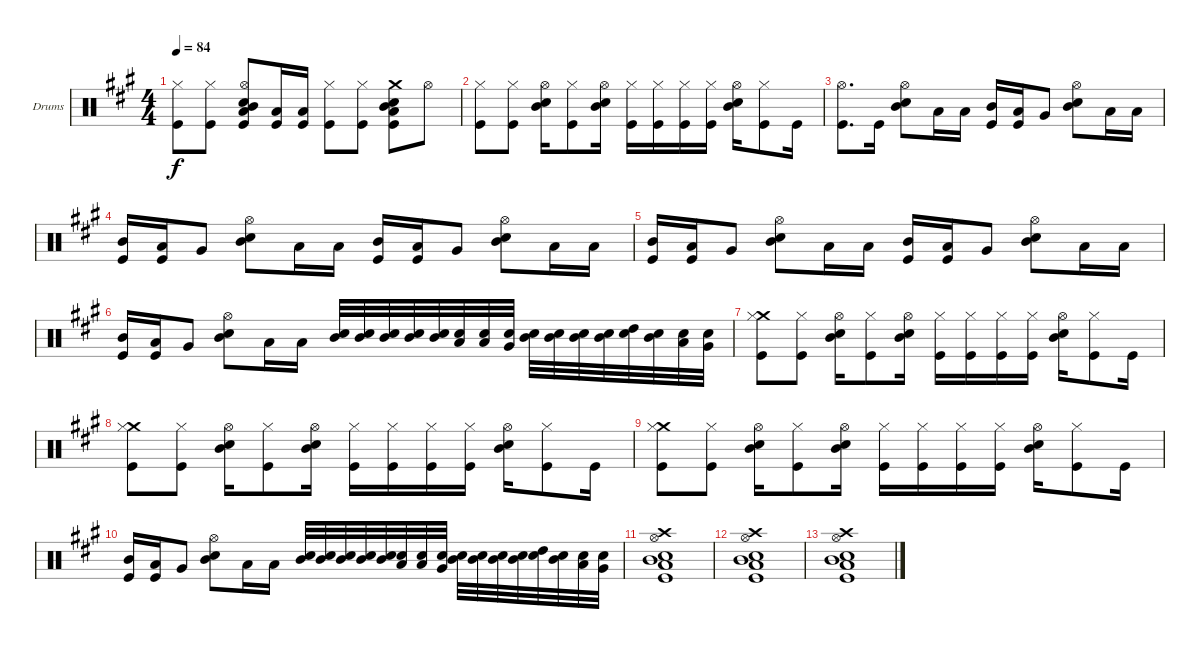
\defaultSystemsLayout 4
\bracketExtendMode groupsimilarinstruments
\firstSystemTrackNameOrientation horizontal
\otherSystemsTrackNameOrientation horizontal
\track ("Drumkit" "Drums") {instrument percussion}
\staff {score}
\articulation defaults
\ts (4 4)
\tempo 84
\clef neutral
\ks a
("Hi-Hat (closed)" "Kick (hit)").8{dy f} ("Hi-Hat (closed)" "Kick (hit)").8 ("Snare (hit) 2" "Mid Tom (hit)" "Hi-Hat (open)" "Low Tom (hit)" "Kick (hit)").8 ("Low Tom (hit)" "Kick (hit)").16 ("Low Tom (hit)" "Kick (hit)").16 ("Hi-Hat (closed)" "Kick (hit)").8 ("Hi-Hat (closed)" "Kick (hit)").8 ("Snare (hit) 2" "Mid Tom (hit)" "Crash medium (hit)" "Low Tom (hit)" "Kick (hit)").8 "Hi-Hat (open)".8 |
("Kick (hit)" "Hi-Hat (closed)").8 ("Kick (hit)" "Hi-Hat (closed)").8 ("Snare (hit) 2" "Mid Tom (hit)" "Hi-Hat (open)").16 ("Kick (hit)" "Hi-Hat (closed)").8 ("Snare (hit) 2" "Mid Tom (hit)" "Hi-Hat (open)").16 ("Kick (hit)" "Hi-Hat (closed)").16 ("Kick (hit)" "Hi-Hat (closed)").16 ("Kick (hit)" "Hi-Hat (closed)").16 ("Kick (hit)" "Hi-Hat (closed)").16 ("Snare (hit) 2" "Mid Tom (hit)" "Hi-Hat (open)").16 ("Kick (hit)" "Hi-Hat (closed)").8 "Kick (hit)".16 |
("Hi-Hat (open)" "Kick (hit)").8{d} "Kick (hit)".16 ("Snare (hit) 2" "Mid Tom (hit)" "Hi-Hat (open)").8 "Low Tom (hit)".16 "Low Tom (hit)".16 ("Mid Tom (hit)" "Kick (hit)").16 ("Low Tom (hit)" "Kick (hit)").16 "Very Low Tom (hit)".8 ("Snare (hit) 2" "Mid Tom (hit)" "Hi-Hat (open)").8 "Low Tom (hit)".16 "Low Tom (hit)".16 |
("Mid Tom (hit)" "Kick (hit)").16 ("Low Tom (hit)" "Kick (hit)").16 "Very Low Tom (hit)".8 ("Snare (hit) 2" "Mid Tom (hit)" "Hi-Hat (open)").8 "Low Tom (hit)".16 "Low Tom (hit)".16 ("Mid Tom (hit)" "Kick (hit)").16 ("Low Tom (hit)" "Kick (hit)").16 "Very Low Tom (hit)".8 ("Snare (hit) 2" "Mid Tom (hit)" "Hi-Hat (open)").8 "Low Tom (hit)".16 "Low Tom (hit)".16 |
("Mid Tom (hit)" "Kick (hit)").16 ("Low Tom (hit)" "Kick (hit)").16 "Very Low Tom (hit)".8 ("Snare (hit) 2" "Mid Tom (hit)" "Hi-Hat (open)").8 "Low Tom (hit)".16 "Low Tom (hit)".16 ("Mid Tom (hit)" "Kick (hit)").16 ("Low Tom (hit)" "Kick (hit)").16 "Very Low Tom (hit)".8 ("Snare (hit) 2" "Mid Tom (hit)" "Hi-Hat (open)").8 "Low Tom (hit)".16 "Low Tom (hit)".16 |
("Mid Tom (hit)" "Kick (hit)").16 ("Low Tom (hit)" "Kick (hit)").16 "Very Low Tom (hit)".8 ("Snare (hit) 2" "Mid Tom (hit)" "Hi-Hat (open)").8 "Low Tom (hit)".16 "Low Tom (hit)".16 ("Mid Tom (hit)" "Snare (hit) 2").32 ("Mid Tom (hit)" "Snare (hit) 2").32 ("Mid Tom (hit)" "Snare (hit) 2").32 ("Mid Tom (hit)" "Snare (hit) 2").32 ("Mid Tom (hit)" "Snare (hit) 2").32 ("Low Tom (hit)" "Snare (hit) 2").32 ("Low Tom (hit)" "Snare (hit) 2").32 ("Very Low Tom (hit)" "Snare (hit) 2").32 ("Mid Tom (hit)" "Snare (hit) 2").32 ("Mid Tom (hit)" "Snare (hit) 2").32 ("Mid Tom (hit)" "Snare (hit) 2").32 ("Mid Tom (hit)" "Snare (hit) 2").32 ("High Tom (hit)" "Snare (hit) 2").32 ("Mid Tom (hit)" "Snare (hit) 2").32 ("Low Tom (hit)" "Snare (hit) 2").32 ("Very Low Tom (hit)" "Snare (hit) 2").32 |
("Crash medium (hit)" "Kick (hit)" "Hi-Hat (closed)").8 ("Kick (hit)" "Hi-Hat (closed)").8 ("Snare (hit) 2" "Mid Tom (hit)" "Hi-Hat (open)").16 ("Kick (hit)" "Hi-Hat (closed)").8 ("Snare (hit) 2" "Mid Tom (hit)" "Hi-Hat (open)").16 ("Kick (hit)" "Hi-Hat (closed)").16 ("Kick (hit)" "Hi-Hat (closed)").16 ("Kick (hit)" "Hi-Hat (closed)").16 ("Kick (hit)" "Hi-Hat (closed)").16 ("Snare (hit) 2" "Mid Tom (hit)" "Hi-Hat (open)").16 ("Kick (hit)" "Hi-Hat (closed)").8 "Kick (hit)".16 |
("Crash medium (hit)" "Kick (hit)" "Hi-Hat (closed)").8 ("Kick (hit)" "Hi-Hat (closed)").8 ("Snare (hit) 2" "Mid Tom (hit)" "Hi-Hat (open)").16 ("Kick (hit)" "Hi-Hat (closed)").8 ("Snare (hit) 2" "Mid Tom (hit)" "Hi-Hat (open)").16 ("Kick (hit)" "Hi-Hat (closed)").16 ("Kick (hit)" "Hi-Hat (closed)").16 ("Kick (hit)" "Hi-Hat (closed)").16 ("Kick (hit)" "Hi-Hat (closed)").16 ("Snare (hit) 2" "Mid Tom (hit)" "Hi-Hat (open)").16 ("Kick (hit)" "Hi-Hat (closed)").8 "Kick (hit)".16 |
("Crash medium (hit)" "Kick (hit)" "Hi-Hat (closed)").8 ("Kick (hit)" "Hi-Hat (closed)").8 ("Snare (hit) 2" "Mid Tom (hit)" "Hi-Hat (open)").16 ("Kick (hit)" "Hi-Hat (closed)").8 ("Snare (hit) 2" "Mid Tom (hit)" "Hi-Hat (open)").16 ("Kick (hit)" "Hi-Hat (closed)").16 ("Kick (hit)" "Hi-Hat (closed)").16 ("Kick (hit)" "Hi-Hat (closed)").16 ("Kick (hit)" "Hi-Hat (closed)").16 ("Snare (hit) 2" "Mid Tom (hit)" "Hi-Hat (open)").16 ("Kick (hit)" "Hi-Hat (closed)").8 "Kick (hit)".16 |
("Mid Tom (hit)" "Kick (hit)").16 ("Low Tom (hit)" "Kick (hit)").16 "Very Low Tom (hit)".8 ("Snare (hit) 2" "Mid Tom (hit)" "Hi-Hat (open)").8 "Low Tom (hit)".16 "Low Tom (hit)".16 ("Mid Tom (hit)" "Snare (hit) 2").32 ("Mid Tom (hit)" "Snare (hit) 2").32 ("Mid Tom (hit)" "Snare (hit) 2").32 ("Mid Tom (hit)" "Snare (hit) 2").32 ("Mid Tom (hit)" "Snare (hit) 2").32 ("Low Tom (hit)" "Snare (hit) 2").32 ("Low Tom (hit)" "Snare (hit) 2").32 ("Very Low Tom (hit)" "Snare (hit) 2").32 ("Mid Tom (hit)" "Snare (hit) 2").32 ("Mid Tom (hit)" "Snare (hit) 2").32 ("Mid Tom (hit)" "Snare (hit) 2").32 ("Mid Tom (hit)" "Snare (hit) 2").32 ("High Tom (hit)" "Snare (hit) 2").32 ("Mid Tom (hit)" "Snare (hit) 2").32 ("Low Tom (hit)" "Snare (hit) 2").32 ("Very Low Tom (hit)" "Snare (hit) 2").32 |
("Hi-Hat (open)" "Kick (hit)" "Crash high (hit)" "Snare (hit) 2" "Mid Tom (hit)" "Low Tom (hit)").1 |
("Hi-Hat (open)" "Kick (hit)" "Crash high (hit)" "Snare (hit) 2" "Mid Tom (hit)" "Low Tom (hit)").1 |
("Hi-Hat (open)" "Kick (hit)" "Crash high (hit)" "Snare (hit) 2" "Mid Tom (hit)" "Low Tom (hit)").1
